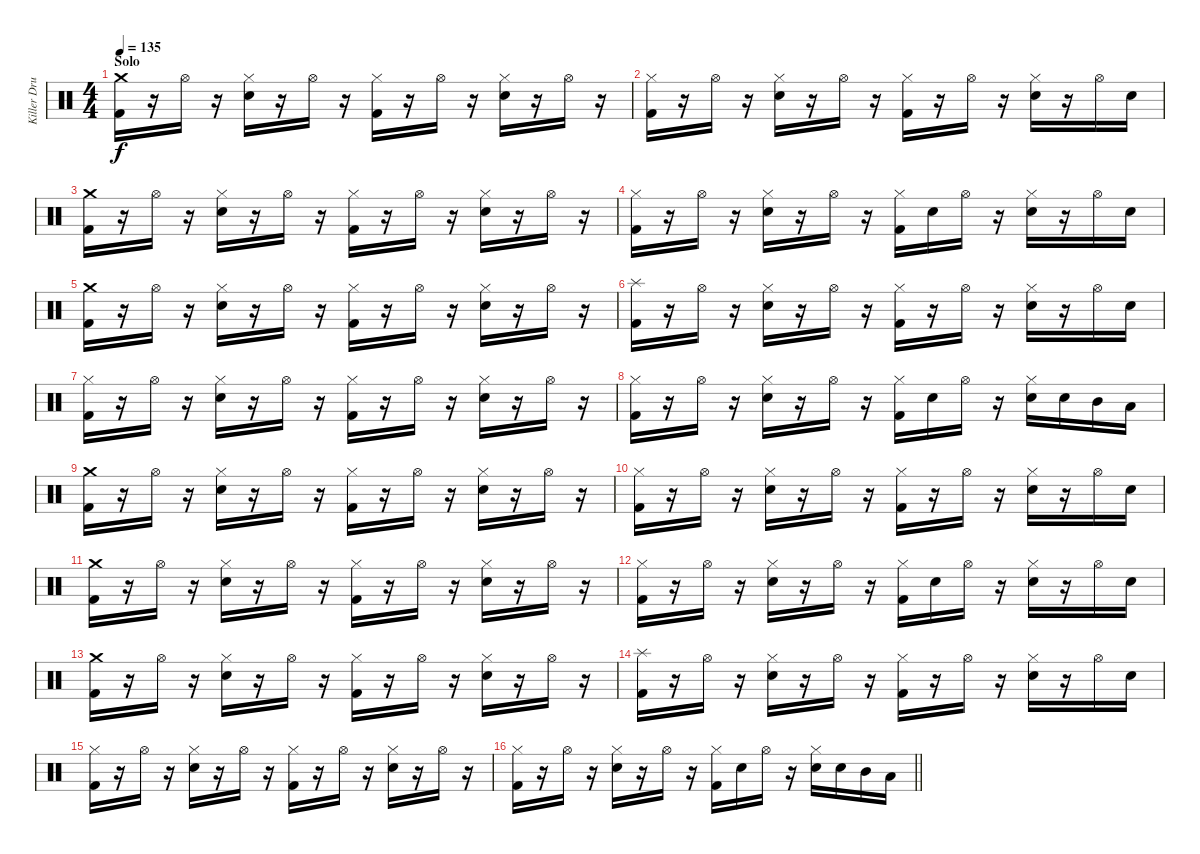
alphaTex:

\track ("Killer Drummer" "Killer Dru") {instrument percussion}
\staff {score}
\articulation defaults
\ts (4 4)
\section ("" "Solo")
\tempo 135
\clef neutral
\ks c
("Crash medium (hit)" "Kick (hit) 2").16{dy f} r.16 "Hi-Hat (open)".16 r.16 ("Hi-Hat (closed)" "Electric Snare (hit)").16 r.16 "Hi-Hat (open)".16 r.16 ("Hi-Hat (closed)" "Kick (hit) 2").16 r.16 "Hi-Hat (open)".16 r.16 ("Hi-Hat (closed)" "Electric Snare (hit)").16 r.16 "Hi-Hat (open)".16 r.16 |
("Hi-Hat (closed)" "Kick (hit) 2").16 r.16 "Hi-Hat (open)".16 r.16 ("Hi-Hat (closed)" "Electric Snare (hit)").16 r.16 "Hi-Hat (open)".16 r.16 ("Hi-Hat (closed)" "Kick (hit) 2").16 r.16 "Hi-Hat (open)".16 r.16 ("Hi-Hat (closed)" "Electric Snare (hit)").16 r.16 "Hi-Hat (open)".16 "Electric Snare (hit)".16 |
("Crash medium (hit)" "Kick (hit) 2").16 r.16 "Hi-Hat (open)".16 r.16 ("Hi-Hat (closed)" "Electric Snare (hit)").16 r.16 "Hi-Hat (open)".16 r.16 ("Hi-Hat (closed)" "Kick (hit) 2").16 r.16 "Hi-Hat (open)".16 r.16 ("Hi-Hat (closed)" "Electric Snare (hit)").16 r.16 "Hi-Hat (open)".16 r.16 |
("Hi-Hat (closed)" "Kick (hit) 2").16 r.16 "Hi-Hat (open)".16 r.16 ("Hi-Hat (closed)" "Electric Snare (hit)").16 r.16 "Hi-Hat (open)".16 r.16 ("Hi-Hat (closed)" "Kick (hit) 2").16 "Electric Snare (hit)".16 "Hi-Hat (open)".16 r.16 ("Hi-Hat (closed)" "Electric Snare (hit)").16 r.16 "Hi-Hat (open)".16 "Electric Snare (hit)".16 |
("Crash medium (hit)" "Kick (hit) 2").16 r.16 "Hi-Hat (open)".16 r.16 ("Hi-Hat (closed)" "Electric Snare (hit)").16 r.16 "Hi-Hat (open)".16 r.16 ("Hi-Hat (closed)" "Kick (hit) 2").16 r.16 "Hi-Hat (open)".16 r.16 ("Hi-Hat (closed)" "Electric Snare (hit)").16 r.16 "Hi-Hat (open)".16 r.16 |
("Splash (hit)" "Kick (hit) 2").16 r.16 "Hi-Hat (open)".16 r.16 ("Hi-Hat (closed)" "Electric Snare (hit)").16 r.16 "Hi-Hat (open)".16 r.16 ("Hi-Hat (closed)" "Kick (hit) 2").16 r.16 "Hi-Hat (open)".16 r.16 ("Hi-Hat (closed)" "Electric Snare (hit)").16 r.16 "Hi-Hat (open)".16 "Electric Snare (hit)".16 |
("Hi-Hat (closed)" "Kick (hit) 2").16 r.16 "Hi-Hat (open)".16 r.16 ("Hi-Hat (closed)" "Electric Snare (hit)").16 r.16 "Hi-Hat (open)".16 r.16 ("Hi-Hat (closed)" "Kick (hit) 2").16 r.16 "Hi-Hat (open)".16 r.16 ("Hi-Hat (closed)" "Electric Snare (hit)").16 r.16 "Hi-Hat (open)".16 r.16 |
("Hi-Hat (closed)" "Kick (hit) 2").16 r.16 "Hi-Hat (open)".16 r.16 ("Hi-Hat (closed)" "Electric Snare (hit)").16 r.16 "Hi-Hat (open)".16 r.16 ("Hi-Hat (closed)" "Kick (hit) 2").16 "Electric Snare (hit)".16 "Hi-Hat (open)".16 r.16 ("Hi-Hat (closed)" "Electric Snare (hit)").16 "Electric Snare (hit)".16 "Mid Tom (hit)".16 "Low Tom (hit)".16 |
("Crash medium (hit)" "Kick (hit) 2").16 r.16 "Hi-Hat (open)".16 r.16 ("Hi-Hat (closed)" "Electric Snare (hit)").16 r.16 "Hi-Hat (open)".16 r.16 ("Hi-Hat (closed)" "Kick (hit) 2").16 r.16 "Hi-Hat (open)".16 r.16 ("Hi-Hat (closed)" "Electric Snare (hit)").16 r.16 "Hi-Hat (open)".16 r.16 |
("Hi-Hat (closed)" "Kick (hit) 2").16 r.16 "Hi-Hat (open)".16 r.16 ("Hi-Hat (closed)" "Electric Snare (hit)").16 r.16 "Hi-Hat (open)".16 r.16 ("Hi-Hat (closed)" "Kick (hit) 2").16 r.16 "Hi-Hat (open)".16 r.16 ("Hi-Hat (closed)" "Electric Snare (hit)").16 r.16 "Hi-Hat (open)".16 "Electric Snare (hit)".16 |
("Crash medium (hit)" "Kick (hit) 2").16 r.16 "Hi-Hat (open)".16 r.16 ("Hi-Hat (closed)" "Electric Snare (hit)").16 r.16 "Hi-Hat (open)".16 r.16 ("Hi-Hat (closed)" "Kick (hit) 2").16 r.16 "Hi-Hat (open)".16 r.16 ("Hi-Hat (closed)" "Electric Snare (hit)").16 r.16 "Hi-Hat (open)".16 r.16 |
("Hi-Hat (closed)" "Kick (hit) 2").16 r.16 "Hi-Hat (open)".16 r.16 ("Hi-Hat (closed)" "Electric Snare (hit)").16 r.16 "Hi-Hat (open)".16 r.16 ("Hi-Hat (closed)" "Kick (hit) 2").16 "Electric Snare (hit)".16 "Hi-Hat (open)".16 r.16 ("Hi-Hat (closed)" "Electric Snare (hit)").16 r.16 "Hi-Hat (open)".16 "Electric Snare (hit)".16 |
("Crash medium (hit)" "Kick (hit) 2").16 r.16 "Hi-Hat (open)".16 r.16 ("Hi-Hat (closed)" "Electric Snare (hit)").16 r.16 "Hi-Hat (open)".16 r.16 ("Hi-Hat (closed)" "Kick (hit) 2").16 r.16 "Hi-Hat (open)".16 r.16 ("Hi-Hat (closed)" "Electric Snare (hit)").16 r.16 "Hi-Hat (open)".16 r.16 |
("Splash (hit)" "Kick (hit) 2").16 r.16 "Hi-Hat (open)".16 r.16 ("Hi-Hat (closed)" "Electric Snare (hit)").16 r.16 "Hi-Hat (open)".16 r.16 ("Hi-Hat (closed)" "Kick (hit) 2").16 r.16 "Hi-Hat (open)".16 r.16 ("Hi-Hat (closed)" "Electric Snare (hit)").16 r.16 "Hi-Hat (open)".16 "Electric Snare (hit)".16 |
("Hi-Hat (closed)" "Kick (hit) 2").16 r.16 "Hi-Hat (open)".16 r.16 ("Hi-Hat (closed)" "Electric Snare (hit)").16 r.16 "Hi-Hat (open)".16 r.16 ("Hi-Hat (closed)" "Kick (hit) 2").16 r.16 "Hi-Hat (open)".16 r.16 ("Hi-Hat (closed)" "Electric Snare (hit)").16 r.16 "Hi-Hat (open)".16 r.16 |
\barLineRight lightlight
("Hi-Hat (closed)" "Kick (hit) 2").16 r.16 "Hi-Hat (open)".16 r.16 ("Hi-Hat (closed)" "Electric Snare (hit)").16 r.16 "Hi-Hat (open)".16 r.16 ("Hi-Hat (closed)" "Kick (hit) 2").16 "Electric Snare (hit)".16 "Hi-Hat (open)".16 r.16 ("Hi-Hat (closed)" "Electric Snare (hit)").16 "Electric Snare (hit)".16 "Mid Tom (hit)".16 "Low Tom (hit)".16
